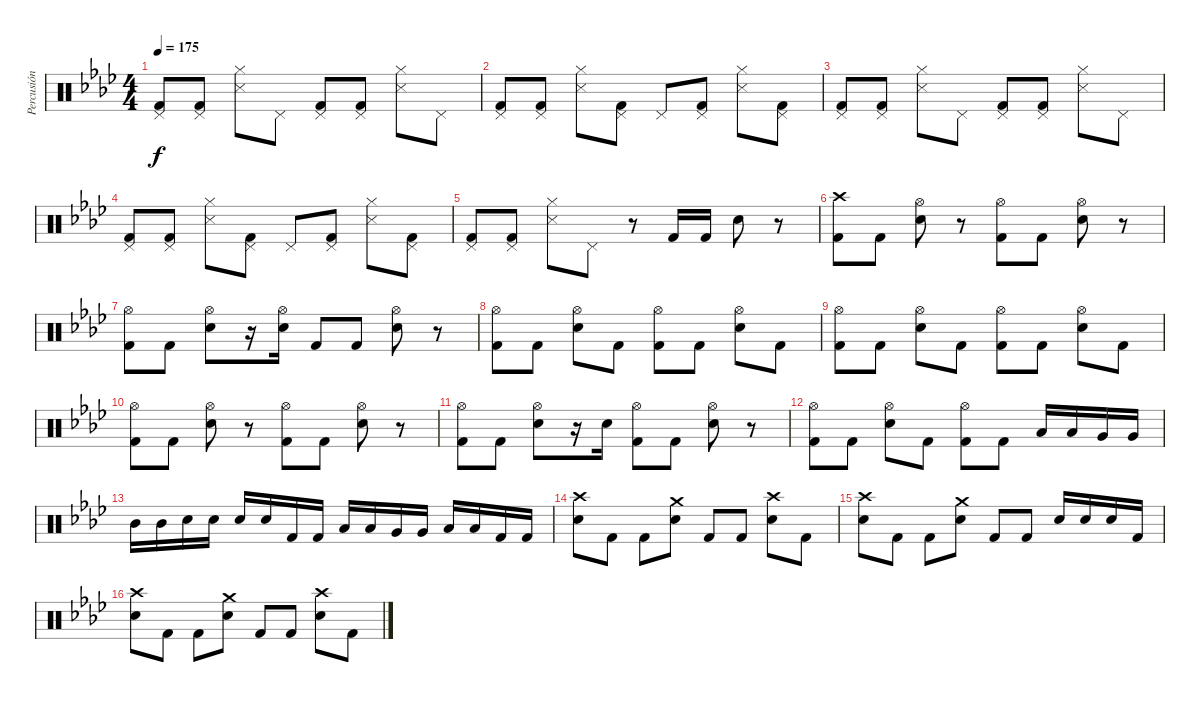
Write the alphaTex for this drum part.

\track ("Percusión" "Percusión") {instrument percussion}
\staff {score}
\articulation defaults
\ts (4 4)
\tempo 175
\clef neutral
\ks fminor
("Kick (hit) 2" "Pedal Hi-Hat (hit)").8{dy f} ("Kick (hit) 2" "Pedal Hi-Hat (hit)").8 ("Snare (side stick) 3" "Hi-Hat (closed)").8 "Pedal Hi-Hat (hit)".8 ("Kick (hit) 2" "Pedal Hi-Hat (hit)").8 ("Kick (hit) 2" "Pedal Hi-Hat (hit)").8 ("Snare (side stick) 3" "Hi-Hat (closed)").8 "Pedal Hi-Hat (hit)".8 |
("Kick (hit) 2" "Pedal Hi-Hat (hit)").8 ("Kick (hit) 2" "Pedal Hi-Hat (hit)").8 ("Snare (side stick) 3" "Hi-Hat (closed)").8 ("Kick (hit) 2" "Pedal Hi-Hat (hit)").8 "Pedal Hi-Hat (hit)".8 ("Kick (hit) 2" "Pedal Hi-Hat (hit)").8 ("Snare (side stick) 3" "Hi-Hat (closed)").8 ("Kick (hit) 2" "Pedal Hi-Hat (hit)").8 |
("Kick (hit) 2" "Pedal Hi-Hat (hit)").8 ("Kick (hit) 2" "Pedal Hi-Hat (hit)").8 ("Snare (side stick) 3" "Hi-Hat (closed)").8 "Pedal Hi-Hat (hit)".8 ("Kick (hit) 2" "Pedal Hi-Hat (hit)").8 ("Kick (hit) 2" "Pedal Hi-Hat (hit)").8 ("Snare (side stick) 3" "Hi-Hat (closed)").8 "Pedal Hi-Hat (hit)".8 |
("Kick (hit) 2" "Pedal Hi-Hat (hit)").8 ("Kick (hit) 2" "Pedal Hi-Hat (hit)").8 ("Snare (side stick) 3" "Hi-Hat (closed)").8 ("Kick (hit) 2" "Pedal Hi-Hat (hit)").8 "Pedal Hi-Hat (hit)".8 ("Kick (hit) 2" "Pedal Hi-Hat (hit)").8 ("Snare (side stick) 3" "Hi-Hat (closed)").8 ("Kick (hit) 2" "Pedal Hi-Hat (hit)").8 |
("Kick (hit) 2" "Pedal Hi-Hat (hit)").8 ("Kick (hit) 2" "Pedal Hi-Hat (hit)").8 ("Snare (side stick) 3" "Hi-Hat (closed)").8 "Pedal Hi-Hat (hit)".8 r.8 "Kick (hit) 2".16 "Kick (hit) 2".16 "Snare (hit) 2".8 r.8 |
("Kick (hit) 2" "Crash high (hit)").8 "Kick (hit) 2".8 ("Snare (hit) 2" "Hi-Hat (open)").8 r.8 ("Kick (hit) 2" "Hi-Hat (open)").8 "Kick (hit) 2".8 ("Snare (hit) 2" "Hi-Hat (open)").8 r.8 |
("Kick (hit) 2" "Hi-Hat (open)").8 "Kick (hit) 2".8 ("Snare (hit) 2" "Hi-Hat (open)").8 r.16 ("Snare (hit) 2" "Hi-Hat (open)").16 "Kick (hit) 2".8 "Kick (hit) 2".8 ("Snare (hit) 2" "Hi-Hat (open)").8 r.8 |
("Kick (hit) 2" "Hi-Hat (open)").8 "Kick (hit) 2".8 ("Snare (hit) 2" "Hi-Hat (open)").8 "Kick (hit) 2".8 ("Kick (hit) 2" "Hi-Hat (open)").8 "Kick (hit) 2".8 ("Snare (hit) 2" "Hi-Hat (open)").8 "Kick (hit) 2".8 |
("Kick (hit) 2" "Hi-Hat (open)").8 "Kick (hit) 2".8 ("Snare (hit) 2" "Hi-Hat (open)").8 "Kick (hit) 2".8 ("Kick (hit) 2" "Hi-Hat (open)").8 "Kick (hit) 2".8 ("Snare (hit) 2" "Hi-Hat (open)").8 "Kick (hit) 2".8 |
("Kick (hit) 2" "Hi-Hat (open)").8 "Kick (hit) 2".8 ("Snare (hit) 2" "Hi-Hat (open)").8 r.8 ("Kick (hit) 2" "Hi-Hat (open)").8 "Kick (hit) 2".8 ("Snare (hit) 2" "Hi-Hat (open)").8 r.8 |
("Kick (hit) 2" "Hi-Hat (open)").8 "Kick (hit) 2".8 ("Snare (hit) 2" "Hi-Hat (open)").8 r.16 "Snare (hit) 2".16 ("Kick (hit) 2" "Hi-Hat (open)").8 "Kick (hit) 2".8 ("Snare (hit) 2" "Hi-Hat (open)").8 r.8 |
("Kick (hit) 2" "Hi-Hat (open)").8 "Kick (hit) 2".8 ("Snare (hit) 2" "Hi-Hat (open)").8 "Kick (hit) 2".8 ("Kick (hit) 2" "Hi-Hat (open)").8 "Kick (hit) 2".8 "Low Tom (hit)".16 "Low Tom (hit)".16 "Very Low Tom (hit)".16 "Very Low Tom (hit)".16 |
"Mid Tom (hit)".16 "Mid Tom (hit)".16 "Snare (hit) 2".16 "Snare (hit) 2".16 "Snare (hit) 2".16 "Snare (hit) 2".16 "Kick (hit) 2".16 "Kick (hit) 2".16 "Low Tom (hit)".16 "Low Tom (hit)".16 "Very Low Tom (hit)".16 "Very Low Tom (hit)".16 "Low Floor Tom (hit)".16 "Low Floor Tom (hit)".16 "Kick (hit) 2".16 "Kick (hit) 2".16 |
("Snare (hit) 2" "Crash high (hit)").8 "Kick (hit) 2".8 "Kick (hit) 2".8 ("Snare (hit) 2" "Crash medium (hit)").8 "Kick (hit) 2".8 "Kick (hit) 2".8 ("Snare (hit) 2" "Crash high (hit)").8 "Kick (hit) 2".8 |
("Snare (hit) 2" "Crash high (hit)").8 "Kick (hit) 2".8 "Kick (hit) 2".8 ("Snare (hit) 2" "Crash medium (hit)").8 "Kick (hit) 2".8 "Kick (hit) 2".8 "Snare (hit) 2".16 "Snare (hit) 2".16 "Snare (hit) 2".16 "Kick (hit) 2".16 |
("Snare (hit) 2" "Crash high (hit)").8 "Kick (hit) 2".8 "Kick (hit) 2".8 ("Snare (hit) 2" "Crash medium (hit)").8 "Kick (hit) 2".8 "Kick (hit) 2".8 ("Snare (hit) 2" "Crash high (hit)").8 "Kick (hit) 2".8
